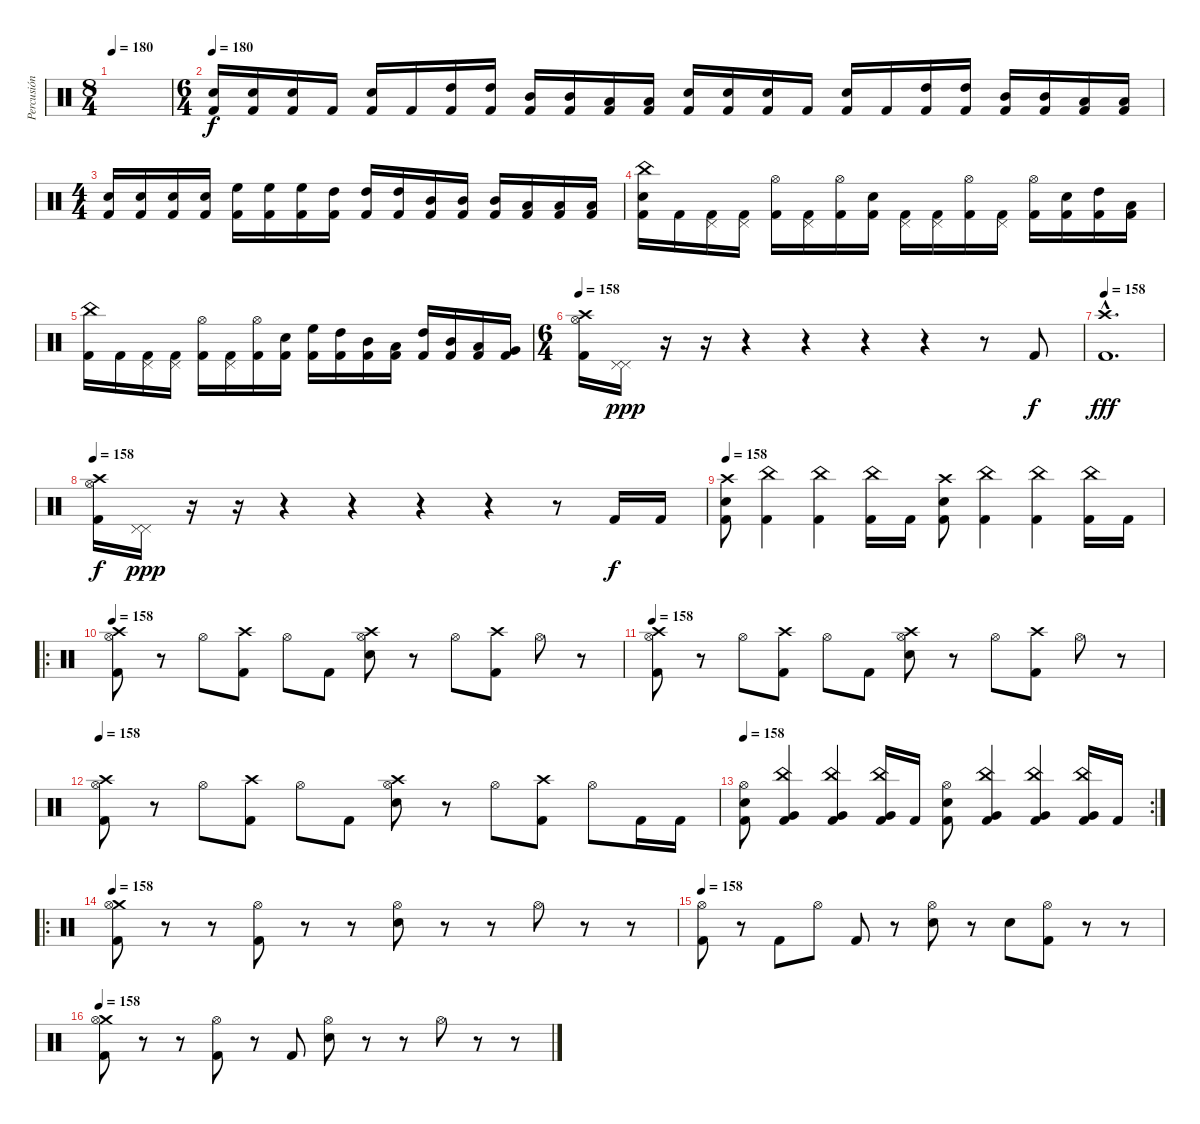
\track ("Percusión" "Percusión") {instrument percussion}
\staff {score}
\articulation defaults
\ts (8 4)
\tempo 180
\clef neutral
\ks c
|
\ts (6 4)
\tempo 180
("Electric Snare (hit)" "Kick (hit) 2").16 ("Electric Snare (hit)" "Kick (hit) 2").16 ("Electric Snare (hit)" "Kick (hit) 2").16 "Kick (hit) 2".16 ("Electric Snare (hit)" "Kick (hit) 2").16 "Kick (hit) 2".16 ("High Tom (hit)" "Kick (hit) 2").16 ("High Tom (hit)" "Kick (hit) 2").16 ("Mid Tom (hit)" "Kick (hit) 2").16 ("Mid Tom (hit)" "Kick (hit) 2").16 ("Low Tom (hit)" "Kick (hit) 2").16 ("Low Tom (hit)" "Kick (hit) 2").16 ("Electric Snare (hit)" "Kick (hit) 2").16 ("Electric Snare (hit)" "Kick (hit) 2").16 ("Electric Snare (hit)" "Kick (hit) 2").16 "Kick (hit) 2".16 ("Electric Snare (hit)" "Kick (hit) 2").16 "Kick (hit) 2".16 ("High Tom (hit)" "Kick (hit) 2").16 ("High Tom (hit)" "Kick (hit) 2").16 ("Mid Tom (hit)" "Kick (hit) 2").16 ("Mid Tom (hit)" "Kick (hit) 2").16 ("Low Tom (hit)" "Kick (hit) 2").16 ("Low Tom (hit)" "Kick (hit) 2").16 |
\ts (4 4)
("Electric Snare (hit)" "Kick (hit) 2").16 ("Electric Snare (hit)" "Kick (hit) 2").16 ("Electric Snare (hit)" "Kick (hit) 2").16 ("Electric Snare (hit)" "Kick (hit) 2").16 ("High Floor Tom (hit)" "Kick (hit) 2").16 ("High Floor Tom (hit)" "Kick (hit) 2").16 ("High Floor Tom (hit)" "Kick (hit) 2").16 ("High Tom (hit)" "Kick (hit) 2").16 ("High Tom (hit)" "Kick (hit) 2").16 ("High Tom (hit)" "Kick (hit) 2").16 ("Mid Tom (hit)" "Kick (hit) 2").16 ("Mid Tom (hit)" "Kick (hit) 2").16 ("Mid Tom (hit)" "Kick (hit) 2").16 ("Low Tom (hit)" "Kick (hit) 2").16 ("Low Tom (hit)" "Kick (hit) 2").16 ("Low Tom (hit)" "Kick (hit) 2").16 |
("China (hit)" "Electric Snare (hit)" "Kick (hit) 2").16 "Kick (hit) 2".16 ("Pedal Hi-Hat (hit)" "Kick (hit) 2").16 ("Pedal Hi-Hat (hit)" "Kick (hit) 2").16 ("Hi-Hat (open)" "Kick (hit) 2").16 ("Pedal Hi-Hat (hit)" "Kick (hit) 2").16 ("Hi-Hat (open)" "Kick (hit) 2").16 ("Electric Snare (hit)" "Kick (hit) 2").16 ("Pedal Hi-Hat (hit)" "Kick (hit) 2").16 ("Pedal Hi-Hat (hit)" "Kick (hit) 2").16 ("Hi-Hat (open)" "Kick (hit) 2").16 ("Pedal Hi-Hat (hit)" "Kick (hit) 2").16 ("Hi-Hat (open)" "Kick (hit) 2").16 ("Electric Snare (hit)" "Kick (hit) 2").16 ("High Tom (hit)" "Kick (hit) 2").16 ("Low Tom (hit)" "Kick (hit) 2").16 |
("China (hit)" "Kick (hit) 2").16 "Kick (hit) 2".16 ("Pedal Hi-Hat (hit)" "Kick (hit) 2").16 ("Pedal Hi-Hat (hit)" "Kick (hit) 2").16 ("Hi-Hat (open)" "Kick (hit) 2").16 ("Pedal Hi-Hat (hit)" "Kick (hit) 2").16 ("Hi-Hat (open)" "Kick (hit) 2").16 ("Electric Snare (hit)" "Kick (hit) 2").16 ("High Floor Tom (hit)" "Kick (hit) 2").16 ("High Tom (hit)" "Kick (hit) 2").16 ("Mid Tom (hit)" "Kick (hit) 2").16 ("Low Tom (hit)" "Kick (hit) 2").16 ("High Tom (hit)" "Kick (hit) 2").16 ("Mid Tom (hit)" "Kick (hit) 2").16 ("Low Tom (hit)" "Kick (hit) 2").16 ("Very Low Tom (hit)" "Kick (hit) 2").16 |
\ts (6 4)
\tempo 158
("Crash high (hit)" "Hi-Hat (open)" "Kick (hit) 2").16 ("Pedal Hi-Hat (hit)" "Pedal Hi-Hat (hit)").16{dy ppp} r.16 r.16 r.4 r.4 r.4 r.4 r.8 "Kick (hit) 2".8{dy f} |
\tempo 158
("Crash high (hit)"{hac} "Kick (hit) 2"{hac}).1{d dy fff} |
\tempo 158
("Crash high (hit)" "Hi-Hat (open)" "Kick (hit) 2").16{dy f} ("Pedal Hi-Hat (hit)" "Pedal Hi-Hat (hit)").16{dy ppp} r.16 r.16 r.4 r.4 r.4 r.4 r.8 "Kick (hit) 2".16{dy f} "Kick (hit) 2".16 |
\tempo 158
("Crash high (hit)" "Electric Snare (hit)" "Kick (hit) 2").8 ("China (hit)" "Kick (hit) 2").4 ("China (hit)" "Kick (hit) 2").4 ("China (hit)" "Kick (hit) 2").16 "Kick (hit) 2".16 ("Crash high (hit)" "Electric Snare (hit)" "Kick (hit) 2").8 ("China (hit)" "Kick (hit) 2").4 ("China (hit)" "Kick (hit) 2").4 ("China (hit)" "Kick (hit) 2").16 "Kick (hit) 2".16 |
\ro
\tempo 158
("Crash high (hit)" "Hi-Hat (open)" "Kick (hit) 2").8 r.8 "Hi-Hat (open)".8 ("Crash high (hit)" "Kick (hit) 2").8 "Hi-Hat (open)".8 "Kick (hit) 2".8 ("Crash high (hit)" "Hi-Hat (open)" "Electric Snare (hit)").8 r.8 "Hi-Hat (open)".8 ("Crash high (hit)" "Kick (hit) 2").8 "Hi-Hat (open)".8 r.8 |
\tempo 158
("Crash high (hit)" "Hi-Hat (open)" "Kick (hit) 2").8 r.8 "Hi-Hat (open)".8 ("Crash high (hit)" "Kick (hit) 2").8 "Hi-Hat (open)".8 "Kick (hit) 2".8 ("Crash high (hit)" "Hi-Hat (open)" "Electric Snare (hit)").8 r.8 "Hi-Hat (open)".8 ("Crash high (hit)" "Kick (hit) 2").8 "Hi-Hat (open)".8 r.8 |
\tempo 158
("Crash high (hit)" "Hi-Hat (open)" "Kick (hit) 2").8 r.8 "Hi-Hat (open)".8 ("Crash high (hit)" "Kick (hit) 2").8 "Hi-Hat (open)".8 "Kick (hit) 2".8 ("Crash high (hit)" "Hi-Hat (open)" "Electric Snare (hit)").8 r.8 "Hi-Hat (open)".8 ("Crash high (hit)" "Kick (hit) 2").8 "Hi-Hat (open)".8 "Kick (hit) 2".16 "Kick (hit) 2".16 |
\rc 2
\tempo 158
("Hi-Hat (open)" "Electric Snare (hit)" "Kick (hit) 2").8 ("China (hit)" "Very Low Tom (hit)" "Kick (hit) 2").4 ("China (hit)" "Very Low Tom (hit)" "Kick (hit) 2").4 ("China (hit)" "Very Low Tom (hit)" "Kick (hit) 2").16 "Kick (hit) 2".16 ("Hi-Hat (open)" "Electric Snare (hit)" "Kick (hit) 2").8 ("China (hit)" "Very Low Tom (hit)" "Kick (hit) 2").4 ("China (hit)" "Very Low Tom (hit)" "Kick (hit) 2").4 ("China (hit)" "Very Low Tom (hit)" "Kick (hit) 2").16 "Kick (hit) 2".16 |
\ro
\tempo 158
("Crash medium (hit)" "Hi-Hat (open)" "Kick (hit) 2").8 r.8 r.8 ("Hi-Hat (open)" "Kick (hit) 2").8 r.8 r.8 ("Hi-Hat (open)" "Electric Snare (hit)").8 r.8 r.8 "Hi-Hat (open)".8 r.8 r.8 |
\tempo 158
("Hi-Hat (open)" "Kick (hit) 2").8 r.8 "Kick (hit) 2".8 "Hi-Hat (open)".8 "Kick (hit) 2".8 r.8 ("Hi-Hat (open)" "Electric Snare (hit)").8 r.8 "Electric Snare (hit)".8 ("Hi-Hat (open)" "Kick (hit) 2").8 r.8 r.8 |
\tempo 158
("Crash medium (hit)" "Hi-Hat (open)" "Kick (hit) 2").8 r.8 r.8 ("Hi-Hat (open)" "Kick (hit) 2").8 r.8 "Kick (hit) 2".8 ("Hi-Hat (open)" "Electric Snare (hit)").8 r.8 r.8 "Hi-Hat (open)".8 r.8 r.8
